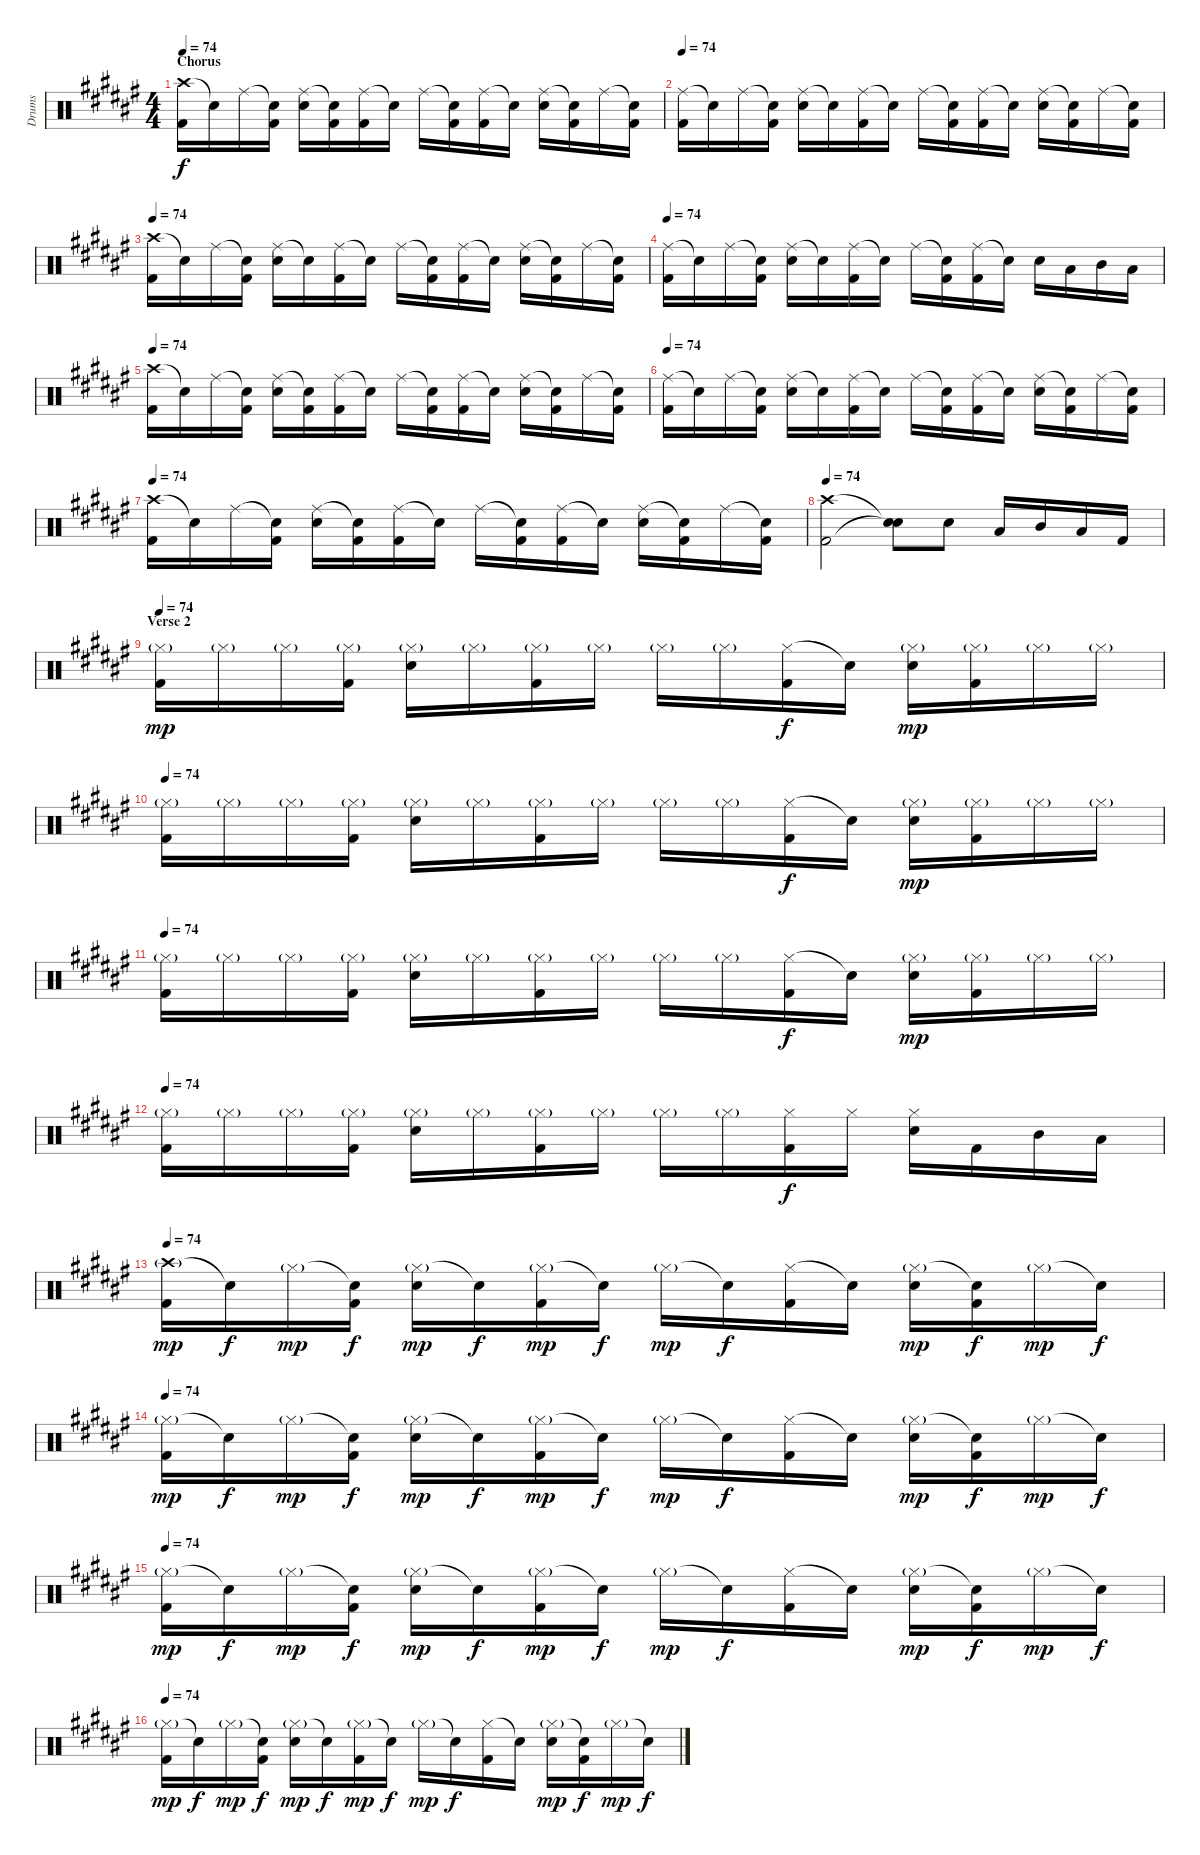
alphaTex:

\track ("Drums" "Drums") {instrument percussion}
\staff {score}
\articulation defaults
\ts (4 4)
\section ("" "Chorus")
\tempo 74
\clef neutral
\ks f#
("Crash high (hit)" "Kick (hit) 2").16{dy f} "Snare (hit)"{t}.16 "Ride (middle)".16 ("Snare (hit)"{t} "Kick (hit) 2").16 ("Ride (middle)" "Electric Snare (hit)").16 ("Snare (hit)"{t} "Kick (hit) 2").16 ("Ride (middle)" "Kick (hit) 2").16 "Snare (hit)"{t}.16 "Ride (middle)".16 ("Snare (hit)"{t} "Kick (hit) 2").16 ("Ride (middle)" "Kick (hit) 2").16 "Snare (hit)"{t}.16 ("Ride (middle)" "Electric Snare (hit)").16 ("Snare (hit)"{t} "Kick (hit) 2").16 "Ride (middle)".16 ("Snare (hit)"{t} "Kick (hit) 2").16 |
\tempo 74
("Ride (middle)" "Kick (hit) 2").16 "Snare (hit)"{t}.16 "Ride (middle)".16 ("Snare (hit)"{t} "Kick (hit) 2").16 ("Ride (middle)" "Electric Snare (hit)").16 "Snare (hit)"{t}.16 ("Ride (middle)" "Kick (hit) 2").16 "Snare (hit)"{t}.16 "Ride (middle)".16 ("Snare (hit)"{t} "Kick (hit) 2").16 ("Ride (middle)" "Kick (hit) 2").16 "Snare (hit)"{t}.16 ("Ride (middle)" "Electric Snare (hit)").16 ("Snare (hit)"{t} "Kick (hit) 2").16 "Ride (middle)".16 ("Snare (hit)"{t} "Kick (hit) 2").16 |
\tempo 74
("Crash high (hit)" "Kick (hit) 2").16 "Snare (hit)"{t}.16 "Ride (middle)".16 ("Snare (hit)"{t} "Kick (hit) 2").16 ("Ride (middle)" "Electric Snare (hit)").16 "Snare (hit)"{t}.16 ("Ride (middle)" "Kick (hit) 2").16 "Snare (hit)"{t}.16 "Ride (middle)".16 ("Snare (hit)"{t} "Kick (hit) 2").16 ("Ride (middle)" "Kick (hit) 2").16 "Snare (hit)"{t}.16 ("Ride (middle)" "Electric Snare (hit)").16 ("Snare (hit)"{t} "Kick (hit) 2").16 "Ride (middle)".16 ("Snare (hit)"{t} "Kick (hit) 2").16 |
\tempo 74
("Ride (middle)" "Kick (hit) 2").16 "Snare (hit)"{t}.16 "Ride (middle)".16 ("Snare (hit)"{t} "Kick (hit) 2").16 ("Ride (middle)" "Electric Snare (hit)").16 "Snare (hit)"{t}.16 ("Ride (middle)" "Kick (hit) 2").16 "Snare (hit)"{t}.16 "Ride (middle)".16 ("Snare (hit)"{t} "Kick (hit) 2").16 ("Ride (middle)" "Kick (hit) 2").16 "Snare (hit)"{t}.16 "Electric Snare (hit)".16 "Low Tom (hit)".16 "Mid Tom (hit)".16 "Low Floor Tom (hit)".16 |
\tempo 74
("Crash high (hit)" "Kick (hit) 2").16 "Snare (hit)"{t}.16 "Ride (middle)".16 ("Snare (hit)"{t} "Kick (hit) 2").16 ("Ride (middle)" "Electric Snare (hit)").16 ("Snare (hit)"{t} "Kick (hit) 2").16 ("Ride (middle)" "Kick (hit) 2").16 "Snare (hit)"{t}.16 "Ride (middle)".16 ("Snare (hit)"{t} "Kick (hit) 2").16 ("Ride (middle)" "Kick (hit) 2").16 "Snare (hit)"{t}.16 ("Ride (middle)" "Electric Snare (hit)").16 ("Snare (hit)"{t} "Kick (hit) 2").16 "Ride (middle)".16 ("Snare (hit)"{t} "Kick (hit) 2").16 |
\tempo 74
("Ride (middle)" "Kick (hit) 2").16 "Snare (hit)"{t}.16 "Ride (middle)".16 ("Snare (hit)"{t} "Kick (hit) 2").16 ("Ride (middle)" "Electric Snare (hit)").16 "Snare (hit)"{t}.16 ("Ride (middle)" "Kick (hit) 2").16 "Snare (hit)"{t}.16 "Ride (middle)".16 ("Snare (hit)"{t} "Kick (hit) 2").16 ("Ride (middle)" "Kick (hit) 2").16 "Snare (hit)"{t}.16 ("Ride (middle)" "Electric Snare (hit)").16 ("Snare (hit)"{t} "Kick (hit) 2").16 "Ride (middle)".16 ("Snare (hit)"{t} "Kick (hit) 2").16 |
\tempo 74
("Crash high (hit)" "Kick (hit) 2").16 "Snare (hit)"{t}.16 "Ride (middle)".16 ("Snare (hit)"{t} "Kick (hit) 2").16 ("Ride (middle)" "Electric Snare (hit)").16 ("Snare (hit)"{t} "Kick (hit) 2").16 ("Ride (middle)" "Kick (hit) 2").16 "Snare (hit)"{t}.16 "Ride (middle)".16 ("Snare (hit)"{t} "Kick (hit) 2").16 ("Ride (middle)" "Kick (hit) 2").16 "Snare (hit)"{t}.16 ("Ride (middle)" "Electric Snare (hit)").16 ("Snare (hit)"{t} "Kick (hit) 2").16 "Ride (middle)".16 ("Snare (hit)"{t} "Kick (hit) 2").16 |
\tempo 74
("Crash high (hit)" "Kick (hit) 2").2 ("Snare (hit)"{t} "Snare (hit)"{t}).8 "Electric Snare (hit)".8 "Low Tom (hit)".16 "Mid Tom (hit)".16 "Low Floor Tom (hit)".16 "Kick (hit) 2".16 |
\section ("" "Verse 2")
\tempo 74
("Hi-Hat (closed)"{g} "Kick (hit) 2").16{dy mp} "Hi-Hat (closed)"{g}.16 "Hi-Hat (closed)"{g}.16 ("Hi-Hat (closed)"{g} "Kick (hit) 2").16 ("Hi-Hat (closed)"{g} "Electric Snare (hit)").16 "Hi-Hat (closed)"{g}.16 ("Hi-Hat (closed)"{g} "Kick (hit) 2").16 "Hi-Hat (closed)"{g}.16 "Hi-Hat (closed)"{g}.16 "Hi-Hat (closed)"{g}.16 ("Hi-Hat (closed)" "Kick (hit) 2").16{dy f} "Snare (hit)"{t}.16 ("Hi-Hat (closed)"{g} "Electric Snare (hit)").16{dy mp} ("Hi-Hat (closed)"{g} "Kick (hit) 2").16 "Hi-Hat (closed)"{g}.16 "Hi-Hat (closed)"{g}.16 |
\tempo 74
("Hi-Hat (closed)"{g} "Kick (hit) 2").16 "Hi-Hat (closed)"{g}.16 "Hi-Hat (closed)"{g}.16 ("Hi-Hat (closed)"{g} "Kick (hit) 2").16 ("Hi-Hat (closed)"{g} "Electric Snare (hit)").16 "Hi-Hat (closed)"{g}.16 ("Hi-Hat (closed)"{g} "Kick (hit) 2").16 "Hi-Hat (closed)"{g}.16 "Hi-Hat (closed)"{g}.16 "Hi-Hat (closed)"{g}.16 ("Hi-Hat (closed)" "Kick (hit) 2").16{dy f} "Snare (hit)"{t}.16 ("Hi-Hat (closed)"{g} "Electric Snare (hit)").16{dy mp} ("Hi-Hat (closed)"{g} "Kick (hit) 2").16 "Hi-Hat (closed)"{g}.16 "Hi-Hat (closed)"{g}.16 |
\tempo 74
("Hi-Hat (closed)"{g} "Kick (hit) 2").16 "Hi-Hat (closed)"{g}.16 "Hi-Hat (closed)"{g}.16 ("Hi-Hat (closed)"{g} "Kick (hit) 2").16 ("Hi-Hat (closed)"{g} "Electric Snare (hit)").16 "Hi-Hat (closed)"{g}.16 ("Hi-Hat (closed)"{g} "Kick (hit) 2").16 "Hi-Hat (closed)"{g}.16 "Hi-Hat (closed)"{g}.16 "Hi-Hat (closed)"{g}.16 ("Hi-Hat (closed)" "Kick (hit) 2").16{dy f} "Snare (hit)"{t}.16 ("Hi-Hat (closed)"{g} "Electric Snare (hit)").16{dy mp} ("Hi-Hat (closed)"{g} "Kick (hit) 2").16 "Hi-Hat (closed)"{g}.16 "Hi-Hat (closed)"{g}.16 |
\tempo 74
("Hi-Hat (closed)"{g} "Kick (hit) 2").16 "Hi-Hat (closed)"{g}.16 "Hi-Hat (closed)"{g}.16 ("Hi-Hat (closed)"{g} "Kick (hit) 2").16 ("Hi-Hat (closed)"{g} "Electric Snare (hit)").16 "Hi-Hat (closed)"{g}.16 ("Hi-Hat (closed)"{g} "Kick (hit) 2").16 "Hi-Hat (closed)"{g}.16 "Hi-Hat (closed)"{g}.16 "Hi-Hat (closed)"{g}.16 ("Hi-Hat (closed)" "Kick (hit) 2").16{dy f} "Hi-Hat (closed)".16 ("Hi-Hat (closed)" "Electric Snare (hit)").16 "Kick (hit) 2".16 "Mid Tom (hit)".16 "Low Floor Tom (hit)".16 |
\tempo 74
("Crash high (hit)"{g} "Kick (hit) 2").16{dy mp} "Snare (hit)"{t}.16{dy f} "Hi-Hat (closed)"{g}.16{dy mp} ("Snare (hit)"{t} "Kick (hit) 2").16{dy f} ("Hi-Hat (closed)"{g} "Electric Snare (hit)").16{dy mp} "Snare (hit)"{t}.16{dy f} ("Hi-Hat (closed)"{g} "Kick (hit) 2").16{dy mp} "Snare (hit)"{t}.16{dy f} "Hi-Hat (closed)"{g}.16{dy mp} "Snare (hit)"{t}.16{dy f} ("Hi-Hat (closed)" "Kick (hit) 2").16 "Snare (hit)"{t}.16 ("Hi-Hat (closed)"{g} "Electric Snare (hit)").16{dy mp} ("Snare (hit)"{t} "Kick (hit) 2").16{dy f} "Hi-Hat (closed)"{g}.16{dy mp} "Snare (hit)"{t}.16{dy f} |
\tempo 74
("Hi-Hat (closed)"{g} "Kick (hit) 2").16{dy mp} "Snare (hit)"{t}.16{dy f} "Hi-Hat (closed)"{g}.16{dy mp} ("Snare (hit)"{t} "Kick (hit) 2").16{dy f} ("Hi-Hat (closed)"{g} "Electric Snare (hit)").16{dy mp} "Snare (hit)"{t}.16{dy f} ("Hi-Hat (closed)"{g} "Kick (hit) 2").16{dy mp} "Snare (hit)"{t}.16{dy f} "Hi-Hat (closed)"{g}.16{dy mp} "Snare (hit)"{t}.16{dy f} ("Hi-Hat (closed)" "Kick (hit) 2").16 "Snare (hit)"{t}.16 ("Hi-Hat (closed)"{g} "Electric Snare (hit)").16{dy mp} ("Snare (hit)"{t} "Kick (hit) 2").16{dy f} "Hi-Hat (closed)"{g}.16{dy mp} "Snare (hit)"{t}.16{dy f} |
\tempo 74
("Hi-Hat (closed)"{g} "Kick (hit) 2").16{dy mp} "Snare (hit)"{t}.16{dy f} "Hi-Hat (closed)"{g}.16{dy mp} ("Snare (hit)"{t} "Kick (hit) 2").16{dy f} ("Hi-Hat (closed)"{g} "Electric Snare (hit)").16{dy mp} "Snare (hit)"{t}.16{dy f} ("Hi-Hat (closed)"{g} "Kick (hit) 2").16{dy mp} "Snare (hit)"{t}.16{dy f} "Hi-Hat (closed)"{g}.16{dy mp} "Snare (hit)"{t}.16{dy f} ("Hi-Hat (closed)" "Kick (hit) 2").16 "Snare (hit)"{t}.16 ("Hi-Hat (closed)"{g} "Electric Snare (hit)").16{dy mp} ("Snare (hit)"{t} "Kick (hit) 2").16{dy f} "Hi-Hat (closed)"{g}.16{dy mp} "Snare (hit)"{t}.16{dy f} |
\tempo 74
("Hi-Hat (closed)"{g} "Kick (hit) 2").16{dy mp} "Snare (hit)"{t}.16{dy f} "Hi-Hat (closed)"{g}.16{dy mp} ("Snare (hit)"{t} "Kick (hit) 2").16{dy f} ("Hi-Hat (closed)"{g} "Electric Snare (hit)").16{dy mp} "Snare (hit)"{t}.16{dy f} ("Hi-Hat (closed)"{g} "Kick (hit) 2").16{dy mp} "Snare (hit)"{t}.16{dy f} "Hi-Hat (closed)"{g}.16{dy mp} "Snare (hit)"{t}.16{dy f} ("Hi-Hat (closed)" "Kick (hit) 2").16 "Snare (hit)"{t}.16 ("Hi-Hat (closed)"{g} "Electric Snare (hit)").16{dy mp} ("Snare (hit)"{t} "Kick (hit) 2").16{dy f} "Hi-Hat (closed)"{g}.16{dy mp} "Snare (hit)"{t}.16{dy f}
